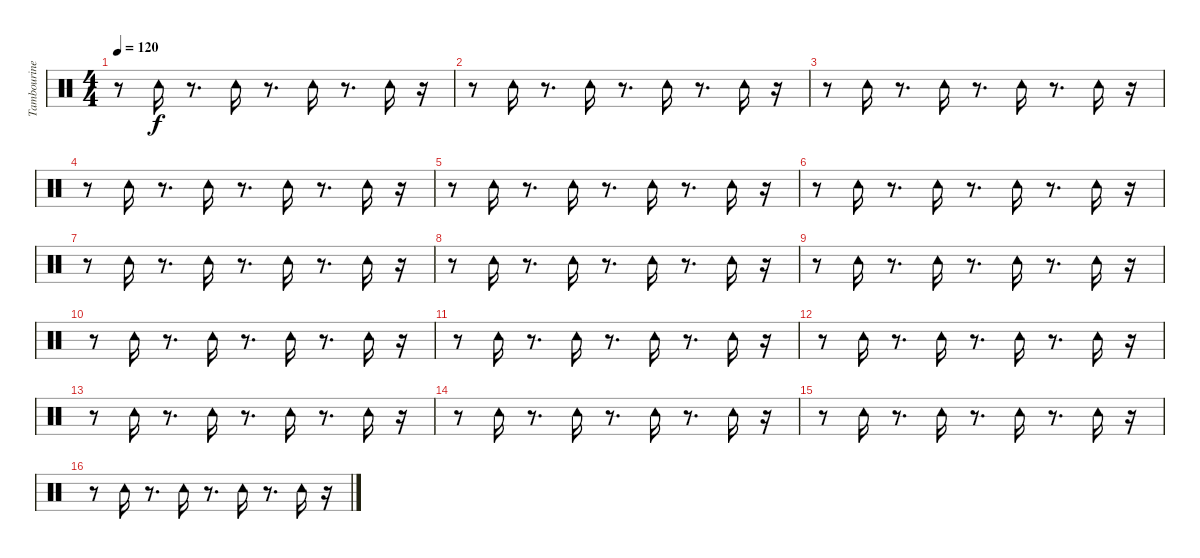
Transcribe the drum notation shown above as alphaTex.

\track ("Tambourine" "Tambourine") {instrument percussion}
\staff {score}
\articulation defaults
\ts (4 4)
\tempo 120
\clef neutral
\ks c
r.8{dy f} "Tambourine (hit)".16 r.8{d} "Tambourine (hit)".16 r.8{d} "Tambourine (hit)".16 r.8{d} "Tambourine (hit)".16 r.16 |
r.8 "Tambourine (hit)".16 r.8{d} "Tambourine (hit)".16 r.8{d} "Tambourine (hit)".16 r.8{d} "Tambourine (hit)".16 r.16 |
r.8 "Tambourine (hit)".16 r.8{d} "Tambourine (hit)".16 r.8{d} "Tambourine (hit)".16 r.8{d} "Tambourine (hit)".16 r.16 |
r.8 "Tambourine (hit)".16 r.8{d} "Tambourine (hit)".16 r.8{d} "Tambourine (hit)".16 r.8{d} "Tambourine (hit)".16 r.16 |
r.8 "Tambourine (hit)".16 r.8{d} "Tambourine (hit)".16 r.8{d} "Tambourine (hit)".16 r.8{d} "Tambourine (hit)".16 r.16 |
r.8 "Tambourine (hit)".16 r.8{d} "Tambourine (hit)".16 r.8{d} "Tambourine (hit)".16 r.8{d} "Tambourine (hit)".16 r.16 |
r.8 "Tambourine (hit)".16 r.8{d} "Tambourine (hit)".16 r.8{d} "Tambourine (hit)".16 r.8{d} "Tambourine (hit)".16 r.16 |
r.8 "Tambourine (hit)".16 r.8{d} "Tambourine (hit)".16 r.8{d} "Tambourine (hit)".16 r.8{d} "Tambourine (hit)".16 r.16 |
r.8 "Tambourine (hit)".16 r.8{d} "Tambourine (hit)".16 r.8{d} "Tambourine (hit)".16 r.8{d} "Tambourine (hit)".16 r.16 |
r.8 "Tambourine (hit)".16 r.8{d} "Tambourine (hit)".16 r.8{d} "Tambourine (hit)".16 r.8{d} "Tambourine (hit)".16 r.16 |
r.8 "Tambourine (hit)".16 r.8{d} "Tambourine (hit)".16 r.8{d} "Tambourine (hit)".16 r.8{d} "Tambourine (hit)".16 r.16 |
r.8 "Tambourine (hit)".16 r.8{d} "Tambourine (hit)".16 r.8{d} "Tambourine (hit)".16 r.8{d} "Tambourine (hit)".16 r.16 |
r.8 "Tambourine (hit)".16 r.8{d} "Tambourine (hit)".16 r.8{d} "Tambourine (hit)".16 r.8{d} "Tambourine (hit)".16 r.16 |
r.8 "Tambourine (hit)".16 r.8{d} "Tambourine (hit)".16 r.8{d} "Tambourine (hit)".16 r.8{d} "Tambourine (hit)".16 r.16 |
r.8 "Tambourine (hit)".16 r.8{d} "Tambourine (hit)".16 r.8{d} "Tambourine (hit)".16 r.8{d} "Tambourine (hit)".16 r.16 |
r.8 "Tambourine (hit)".16 r.8{d} "Tambourine (hit)".16 r.8{d} "Tambourine (hit)".16 r.8{d} "Tambourine (hit)".16 r.16
